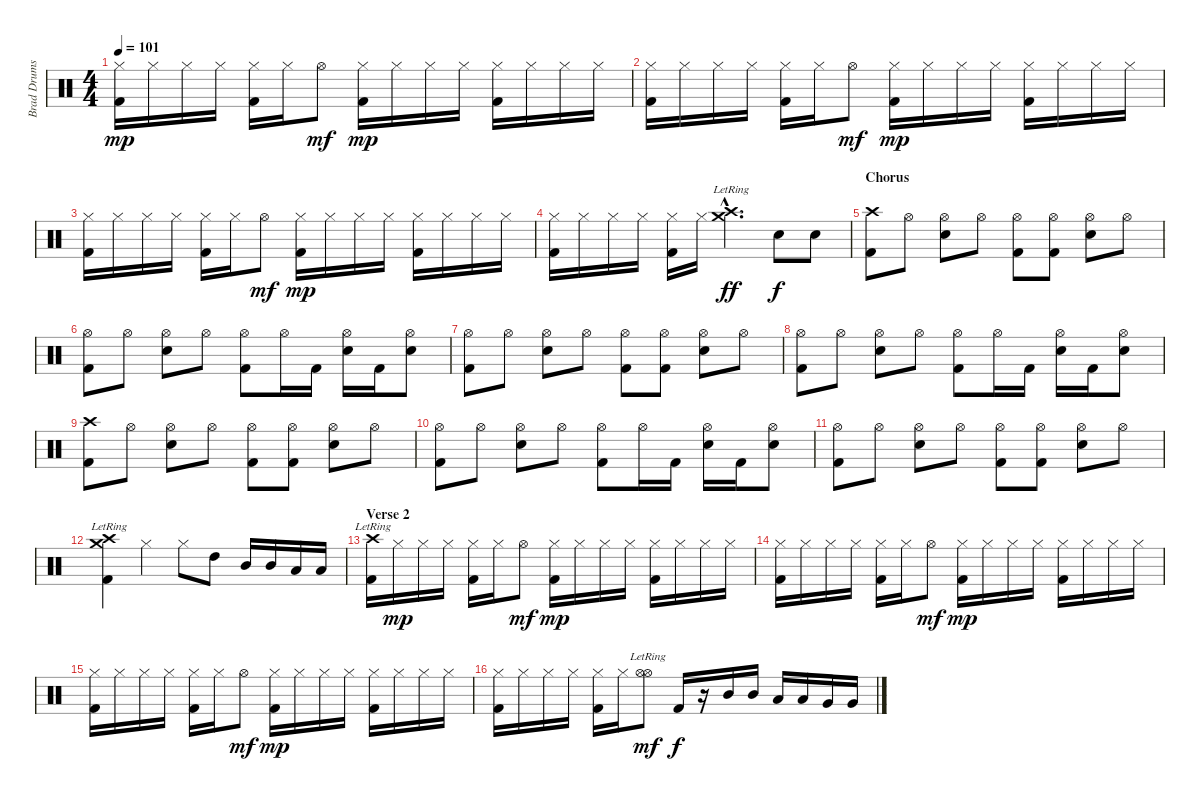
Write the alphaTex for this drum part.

\track ("Brad Drums" "Brad Drums") {instrument percussion}
\staff {score}
\articulation defaults
\ts (4 4)
\tempo 101
\clef neutral
\ks c
("Hi-Hat (closed)" "Kick (hit) 2").16{dy mp} "Hi-Hat (closed)".16 "Hi-Hat (closed)".16 "Hi-Hat (closed)".16 ("Hi-Hat (closed)" "Kick (hit) 2").16 "Hi-Hat (closed)".16 "Hi-Hat (open)".8{dy mf} ("Hi-Hat (closed)" "Kick (hit) 2").16{dy mp} "Hi-Hat (closed)".16 "Hi-Hat (closed)".16 "Hi-Hat (closed)".16 ("Hi-Hat (closed)" "Kick (hit) 2").16 "Hi-Hat (closed)".16 "Hi-Hat (closed)".16 "Hi-Hat (closed)".16 |
("Hi-Hat (closed)" "Kick (hit) 2").16 "Hi-Hat (closed)".16 "Hi-Hat (closed)".16 "Hi-Hat (closed)".16 ("Hi-Hat (closed)" "Kick (hit) 2").16 "Hi-Hat (closed)".16 "Hi-Hat (open)".8{dy mf} ("Hi-Hat (closed)" "Kick (hit) 2").16{dy mp} "Hi-Hat (closed)".16 "Hi-Hat (closed)".16 "Hi-Hat (closed)".16 ("Hi-Hat (closed)" "Kick (hit) 2").16 "Hi-Hat (closed)".16 "Hi-Hat (closed)".16 "Hi-Hat (closed)".16 |
("Hi-Hat (closed)" "Kick (hit) 2").16 "Hi-Hat (closed)".16 "Hi-Hat (closed)".16 "Hi-Hat (closed)".16 ("Hi-Hat (closed)" "Kick (hit) 2").16 "Hi-Hat (closed)".16 "Hi-Hat (open)".8{dy mf} ("Hi-Hat (closed)" "Kick (hit) 2").16{dy mp} "Hi-Hat (closed)".16 "Hi-Hat (closed)".16 "Hi-Hat (closed)".16 ("Hi-Hat (closed)" "Kick (hit) 2").16 "Hi-Hat (closed)".16 "Hi-Hat (closed)".16 "Hi-Hat (closed)".16 |
("Hi-Hat (closed)" "Kick (hit) 2").16 "Hi-Hat (closed)".16 "Hi-Hat (closed)".16 "Hi-Hat (closed)".16 ("Hi-Hat (closed)" "Kick (hit) 2").16 "Hi-Hat (closed)".16 ("Crash high (hit)"{hac lr} "Crash medium (hit)"{hac lr}).4{d dy ff} "Electric Snare (hit)".8{dy f} "Electric Snare (hit)".8 |
\section ("" "Chorus")
("Crash high (hit)" "Kick (hit) 2").8 "Hi-Hat (open)".8 ("Hi-Hat (open)" "Electric Snare (hit)").8 "Hi-Hat (open)".8 ("Hi-Hat (open)" "Kick (hit) 2").8 ("Hi-Hat (open)" "Kick (hit) 2").8 ("Hi-Hat (open)" "Electric Snare (hit)").8 "Hi-Hat (open)".8 |
("Hi-Hat (open)" "Kick (hit) 2").8 "Hi-Hat (open)".8 ("Hi-Hat (open)" "Electric Snare (hit)").8 "Hi-Hat (open)".8 ("Hi-Hat (open)" "Kick (hit) 2").8 "Hi-Hat (open)".16 "Kick (hit) 2".16 ("Hi-Hat (open)" "Electric Snare (hit)").16 "Kick (hit) 2".16 ("Hi-Hat (open)" "Electric Snare (hit)").8 |
("Hi-Hat (open)" "Kick (hit) 2").8 "Hi-Hat (open)".8 ("Hi-Hat (open)" "Electric Snare (hit)").8 "Hi-Hat (open)".8 ("Hi-Hat (open)" "Kick (hit) 2").8 ("Hi-Hat (open)" "Kick (hit) 2").8 ("Hi-Hat (open)" "Electric Snare (hit)").8 "Hi-Hat (open)".8 |
("Hi-Hat (open)" "Kick (hit) 2").8 "Hi-Hat (open)".8 ("Hi-Hat (open)" "Electric Snare (hit)").8 "Hi-Hat (open)".8 ("Hi-Hat (open)" "Kick (hit) 2").8 "Hi-Hat (open)".16 "Kick (hit) 2".16 ("Hi-Hat (open)" "Electric Snare (hit)").16 "Kick (hit) 2".16 ("Hi-Hat (open)" "Electric Snare (hit)").8 |
("Crash high (hit)" "Kick (hit) 2").8 "Hi-Hat (open)".8 ("Hi-Hat (open)" "Electric Snare (hit)").8 "Hi-Hat (open)".8 ("Hi-Hat (open)" "Kick (hit) 2").8 ("Hi-Hat (open)" "Kick (hit) 2").8 ("Hi-Hat (open)" "Electric Snare (hit)").8 "Hi-Hat (open)".8 |
("Hi-Hat (open)" "Kick (hit) 2").8 "Hi-Hat (open)".8 ("Hi-Hat (open)" "Electric Snare (hit)").8 "Hi-Hat (open)".8 ("Hi-Hat (open)" "Kick (hit) 2").8 "Hi-Hat (open)".16 "Kick (hit) 2".16 ("Hi-Hat (open)" "Electric Snare (hit)").16 "Kick (hit) 2".16 ("Hi-Hat (open)" "Electric Snare (hit)").8 |
("Hi-Hat (open)" "Kick (hit) 2").8 "Hi-Hat (open)".8 ("Hi-Hat (open)" "Electric Snare (hit)").8 "Hi-Hat (open)".8 ("Hi-Hat (open)" "Kick (hit) 2").8 ("Hi-Hat (open)" "Kick (hit) 2").8 ("Hi-Hat (open)" "Electric Snare (hit)").8 "Hi-Hat (open)".8 |
("Crash high (hit)"{lr} "Crash medium (hit)"{lr} "Kick (hit) 2").4 "Hi-Hat (closed)".4 "Hi-Hat (closed)".8 "High Tom (hit)".8 "Mid Tom (hit)".16 "Mid Tom (hit)".16 "Low Tom (hit)".16 "Low Tom (hit)".16 |
\section ("" "Verse 2")
("Crash high (hit)"{lr} "Kick (hit) 2").16 "Hi-Hat (closed)".16{dy mp} "Hi-Hat (closed)".16 "Hi-Hat (closed)".16 ("Hi-Hat (closed)" "Kick (hit) 2").16 "Hi-Hat (closed)".16 "Hi-Hat (open)".8{dy mf} ("Hi-Hat (closed)" "Kick (hit) 2").16{dy mp} "Hi-Hat (closed)".16 "Hi-Hat (closed)".16 "Hi-Hat (closed)".16 ("Hi-Hat (closed)" "Kick (hit) 2").16 "Hi-Hat (closed)".16 "Hi-Hat (closed)".16 "Hi-Hat (closed)".16 |
("Hi-Hat (closed)" "Kick (hit) 2").16 "Hi-Hat (closed)".16 "Hi-Hat (closed)".16 "Hi-Hat (closed)".16 ("Hi-Hat (closed)" "Kick (hit) 2").16 "Hi-Hat (closed)".16 "Hi-Hat (open)".8{dy mf} ("Hi-Hat (closed)" "Kick (hit) 2").16{dy mp} "Hi-Hat (closed)".16 "Hi-Hat (closed)".16 "Hi-Hat (closed)".16 ("Hi-Hat (closed)" "Kick (hit) 2").16 "Hi-Hat (closed)".16 "Hi-Hat (closed)".16 "Hi-Hat (closed)".16 |
("Hi-Hat (closed)" "Kick (hit) 2").16 "Hi-Hat (closed)".16 "Hi-Hat (closed)".16 "Hi-Hat (closed)".16 ("Hi-Hat (closed)" "Kick (hit) 2").16 "Hi-Hat (closed)".16 "Hi-Hat (open)".8{dy mf} ("Hi-Hat (closed)" "Kick (hit) 2").16{dy mp} "Hi-Hat (closed)".16 "Hi-Hat (closed)".16 "Hi-Hat (closed)".16 ("Hi-Hat (closed)" "Kick (hit) 2").16 "Hi-Hat (closed)".16 "Hi-Hat (closed)".16 "Hi-Hat (closed)".16 |
("Hi-Hat (closed)" "Kick (hit) 2").16 "Hi-Hat (closed)".16 "Hi-Hat (closed)".16 "Hi-Hat (closed)".16 ("Hi-Hat (closed)" "Kick (hit) 2").16 "Hi-Hat (closed)".16 ("Hi-Hat (open)" "Hi-Hat (open)"{lr}).8{dy mf} "Kick (hit) 2".16{dy f} r.16 "Mid Tom (hit)".16 "Mid Tom (hit)".16 "Low Tom (hit)".16 "Low Tom (hit)".16 "Very Low Tom (hit)".16 "Very Low Tom (hit)".16
